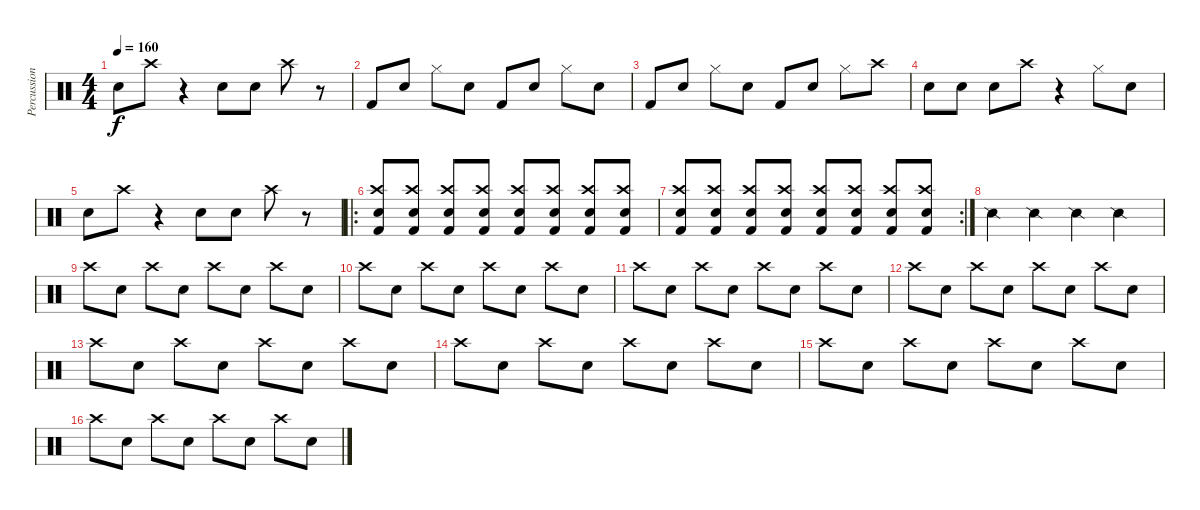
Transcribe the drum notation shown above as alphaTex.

\track ("Percussion" "Percussion") {instrument percussion}
\staff {score}
\articulation defaults
\ts (4 4)
\tempo 160
\clef neutral
\ks c "Electric Snare (hit)".8{dy f} "Crash high (hit)".8
r.4 "Electric Snare (hit)".8 "Electric Snare (hit)".8 "Crash high (hit)".8 r.8 |
"Kick (hit) 2".8 "Electric Snare (hit)".8 "Hi-Hat (closed)".8 "Electric Snare (hit)".8 "Kick (hit) 2".8 "Electric Snare (hit)".8 "Hi-Hat (closed)".8 "Electric Snare (hit)".8 |
"Kick (hit) 2".8 "Electric Snare (hit)".8 "Hi-Hat (closed)".8 "Electric Snare (hit)".8 "Kick (hit) 2".8 "Electric Snare (hit)".8 "Hi-Hat (closed)".8 "Crash high (hit)".8 |
"Electric Snare (hit)".8 "Electric Snare (hit)".8 "Electric Snare (hit)".8 "Crash high (hit)".8 r.4 "Hi-Hat (closed)".8 "Electric Snare (hit)".8 |
"Electric Snare (hit)".8 "Crash high (hit)".8 r.4 "Electric Snare (hit)".8 "Electric Snare (hit)".8 "Crash high (hit)".8 r.8 |
\ro
("Crash high (hit)" "Electric Snare (hit)" "Kick (hit) 2").8 ("Crash high (hit)" "Electric Snare (hit)" "Kick (hit) 2").8 ("Kick (hit) 2" "Electric Snare (hit)" "Crash high (hit)").8 ("Kick (hit) 2" "Electric Snare (hit)" "Crash high (hit)").8 ("Kick (hit) 2" "Electric Snare (hit)" "Crash high (hit)").8 ("Kick (hit) 2" "Electric Snare (hit)" "Crash high (hit)").8 ("Kick (hit) 2" "Electric Snare (hit)" "Crash high (hit)").8 ("Kick (hit) 2" "Electric Snare (hit)" "Crash high (hit)").8 |
\rc 2
("Crash high (hit)" "Electric Snare (hit)" "Kick (hit) 2").8 ("Crash high (hit)" "Electric Snare (hit)" "Kick (hit) 2").8 ("Kick (hit) 2" "Electric Snare (hit)" "Crash high (hit)").8 ("Kick (hit) 2" "Electric Snare (hit)" "Crash high (hit)").8 ("Kick (hit) 2" "Electric Snare (hit)" "Crash high (hit)").8 ("Kick (hit) 2" "Electric Snare (hit)" "Crash high (hit)").8 ("Kick (hit) 2" "Electric Snare (hit)" "Crash high (hit)").8 ("Kick (hit) 2" "Electric Snare (hit)" "Crash high (hit)").8 |
"Snare (side stick) 2".4 "Snare (side stick) 2".4 "Snare (side stick) 2".4 "Snare (side stick) 2".4 |
"Crash high (hit)".8 "Electric Snare (hit)".8 "Crash high (hit)".8 "Electric Snare (hit)".8 "Crash high (hit)".8 "Electric Snare (hit)".8 "Crash high (hit)".8 "Electric Snare (hit)".8 |
"Crash high (hit)".8 "Electric Snare (hit)".8 "Crash high (hit)".8 "Electric Snare (hit)".8 "Crash high (hit)".8 "Electric Snare (hit)".8 "Crash high (hit)".8 "Electric Snare (hit)".8 |
"Crash high (hit)".8 "Electric Snare (hit)".8 "Crash high (hit)".8 "Electric Snare (hit)".8 "Crash high (hit)".8 "Electric Snare (hit)".8 "Crash high (hit)".8 "Electric Snare (hit)".8 |
"Crash high (hit)".8 "Electric Snare (hit)".8 "Crash high (hit)".8 "Electric Snare (hit)".8 "Crash high (hit)".8 "Electric Snare (hit)".8 "Crash high (hit)".8 "Electric Snare (hit)".8 |
"Crash high (hit)".8 "Electric Snare (hit)".8 "Crash high (hit)".8 "Electric Snare (hit)".8 "Crash high (hit)".8 "Electric Snare (hit)".8 "Crash high (hit)".8 "Electric Snare (hit)".8 |
"Crash high (hit)".8 "Electric Snare (hit)".8 "Crash high (hit)".8 "Electric Snare (hit)".8 "Crash high (hit)".8 "Electric Snare (hit)".8 "Crash high (hit)".8 "Electric Snare (hit)".8 |
"Crash high (hit)".8 "Electric Snare (hit)".8 "Crash high (hit)".8 "Electric Snare (hit)".8 "Crash high (hit)".8 "Electric Snare (hit)".8 "Crash high (hit)".8 "Electric Snare (hit)".8 |
"Crash high (hit)".8 "Electric Snare (hit)".8 "Crash high (hit)".8 "Electric Snare (hit)".8 "Crash high (hit)".8 "Electric Snare (hit)".8 "Crash high (hit)".8 "Electric Snare (hit)".8
